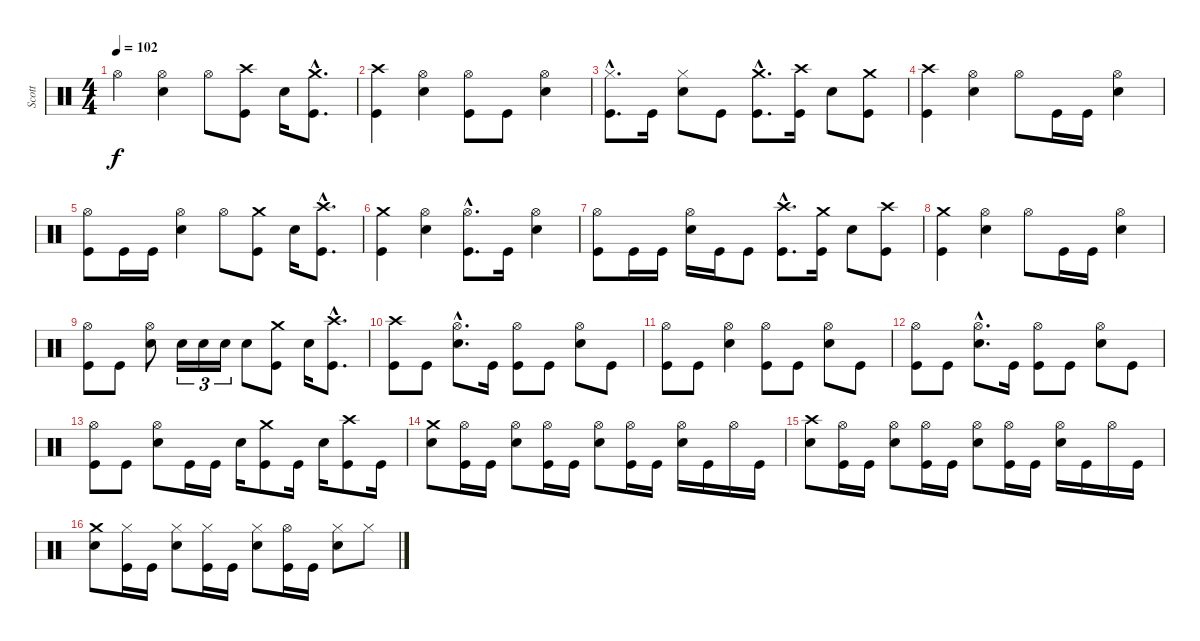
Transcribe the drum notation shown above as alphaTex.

\track ("Scott" "Scott") {instrument percussion}
\staff {score}
\articulation defaults
\ts (4 4)
\tempo 102
\clef neutral
\ks c "Hi-Hat (open)".4{dy f}
("Snare (hit) 2" "Hi-Hat (open)").4 "Hi-Hat (open)".8 ("Kick (hit)" "Crash high (hit)").8 "Snare (hit) 2".16 ("Kick (hit)"{hac} "Crash medium (hit)"{hac}).8{d} |
("Kick (hit)" "Crash high (hit)").4 ("Snare (hit) 2" "Hi-Hat (open)").4 ("Kick (hit)" "Hi-Hat (open)").8 "Kick (hit)".8 ("Snare (hit) 2" "Hi-Hat (open)").4 |
("Kick (hit)"{hac} "Hi-Hat (closed)"{hac}).8{d} "Kick (hit)".16 ("Snare (hit) 2" "Hi-Hat (closed)").8 "Kick (hit)".8 ("Kick (hit)"{hac} "Crash medium (hit)"{hac}).8{d} ("Kick (hit)" "Crash high (hit)").16 "Snare (hit) 2".8 ("Kick (hit)" "Crash medium (hit)").8 |
("Kick (hit)" "Crash high (hit)").4 ("Snare (hit) 2" "Hi-Hat (open)").4 "Hi-Hat (open)".8 "Kick (hit)".16 "Kick (hit)".16 ("Snare (hit) 2" "Hi-Hat (open)").4 |
("Kick (hit)" "Hi-Hat (open)").8 "Kick (hit)".16 "Kick (hit)".16 ("Snare (hit) 2" "Hi-Hat (open)").4 "Hi-Hat (open)".8 ("Kick (hit)" "Crash medium (hit)").8 "Snare (hit) 2".16 ("Kick (hit)"{hac} "Crash high (hit)"{hac}).8{d} |
("Kick (hit)" "Crash medium (hit)").4 ("Snare (hit) 2" "Hi-Hat (open)").4 ("Kick (hit)"{hac} "Hi-Hat (open)"{hac}).8{d} "Kick (hit)".16 ("Snare (hit) 2" "Hi-Hat (open)").4 |
("Kick (hit)" "Hi-Hat (open)").8 "Kick (hit)".16 "Kick (hit)".16 ("Snare (hit) 2" "Hi-Hat (open)").16 "Kick (hit)".16 "Kick (hit)".8 ("Kick (hit)"{hac} "Crash high (hit)"{hac}).8{d} ("Kick (hit)" "Crash medium (hit)").16 "Snare (hit) 2".8 ("Kick (hit)" "Crash high (hit)").8 |
("Kick (hit)" "Crash medium (hit)").4 ("Snare (hit) 2" "Hi-Hat (open)").4 "Hi-Hat (open)".8 "Kick (hit)".16 "Kick (hit)".16 ("Snare (hit) 2" "Hi-Hat (open)").4 |
("Kick (hit)" "Hi-Hat (open)").8 "Kick (hit)".8 ("Snare (hit) 2" "Hi-Hat (open)").8 "Snare (hit) 2".16{tu (3 2)} "Snare (hit) 2".16{tu (3 2)} "Snare (hit) 2".16{tu (3 2)} "Snare (hit) 2".8 ("Kick (hit)" "Crash medium (hit)").8 "Snare (hit) 2".16 ("Kick (hit)"{hac} "Crash high (hit)"{hac}).8{d} |
("Kick (hit)" "Crash high (hit)").8 "Kick (hit)".8 ("Snare (hit) 2"{hac} "Hi-Hat (open)"{hac}).8{d} "Kick (hit)".16 ("Kick (hit)" "Hi-Hat (open)").8 "Kick (hit)".8 ("Snare (hit) 2" "Hi-Hat (open)").8 "Kick (hit)".8 |
("Kick (hit)" "Hi-Hat (open)").8 "Kick (hit)".8 ("Snare (hit) 2" "Hi-Hat (open)").4 ("Kick (hit)" "Hi-Hat (open)").8 "Kick (hit)".8 ("Snare (hit) 2" "Hi-Hat (open)").8 "Kick (hit)".8 |
("Kick (hit)" "Hi-Hat (open)").8 "Kick (hit)".8 ("Snare (hit) 2"{hac} "Hi-Hat (open)"{hac}).8{d} "Kick (hit)".16 ("Kick (hit)" "Hi-Hat (open)").8 "Kick (hit)".8 ("Snare (hit) 2" "Hi-Hat (open)").8 "Kick (hit)".8 |
("Kick (hit)" "Hi-Hat (open)").8 "Kick (hit)".8 ("Snare (hit) 2" "Hi-Hat (open)").8 "Kick (hit)".16 "Kick (hit)".16 "Snare (hit) 2".16 ("Kick (hit)" "Crash medium (hit)").8 "Kick (hit)".16 "Snare (hit) 2".16 ("Kick (hit)" "Crash high (hit)").8 "Kick (hit)".16 |
("Snare (hit) 2" "Crash medium (hit)").8 ("Kick (hit)" "Hi-Hat (open)").16 "Kick (hit)".16 ("Snare (hit) 2" "Hi-Hat (open)").8 ("Kick (hit)" "Hi-Hat (open)").16 "Kick (hit)".16 ("Snare (hit) 2" "Hi-Hat (open)").8 ("Kick (hit)" "Hi-Hat (open)").16 "Kick (hit)".16 ("Snare (hit) 2" "Hi-Hat (open)").16 "Kick (hit)".16 "Hi-Hat (open)".16 "Kick (hit)".16 |
("Snare (hit) 2" "Crash high (hit)").8 ("Kick (hit)" "Hi-Hat (open)").16 "Kick (hit)".16 ("Snare (hit) 2" "Hi-Hat (open)").8 ("Kick (hit)" "Hi-Hat (open)").16 "Kick (hit)".16 ("Snare (hit) 2" "Hi-Hat (open)").8 ("Kick (hit)" "Hi-Hat (open)").16 "Kick (hit)".16 ("Snare (hit) 2" "Hi-Hat (open)").16 "Kick (hit)".16 "Hi-Hat (open)".16 "Kick (hit)".16 |
("Snare (hit) 2" "Crash medium (hit)").8 ("Kick (hit)" "Hi-Hat (closed)").16 "Kick (hit)".16 ("Snare (hit) 2" "Hi-Hat (closed)").8 ("Kick (hit)" "Hi-Hat (closed)").16 "Kick (hit)".16 ("Snare (hit) 2" "Hi-Hat (closed)").8 ("Kick (hit)" "Hi-Hat (open)").16 "Kick (hit)".16 ("Snare (hit) 2" "Hi-Hat (closed)").8 "Hi-Hat (closed)".8
